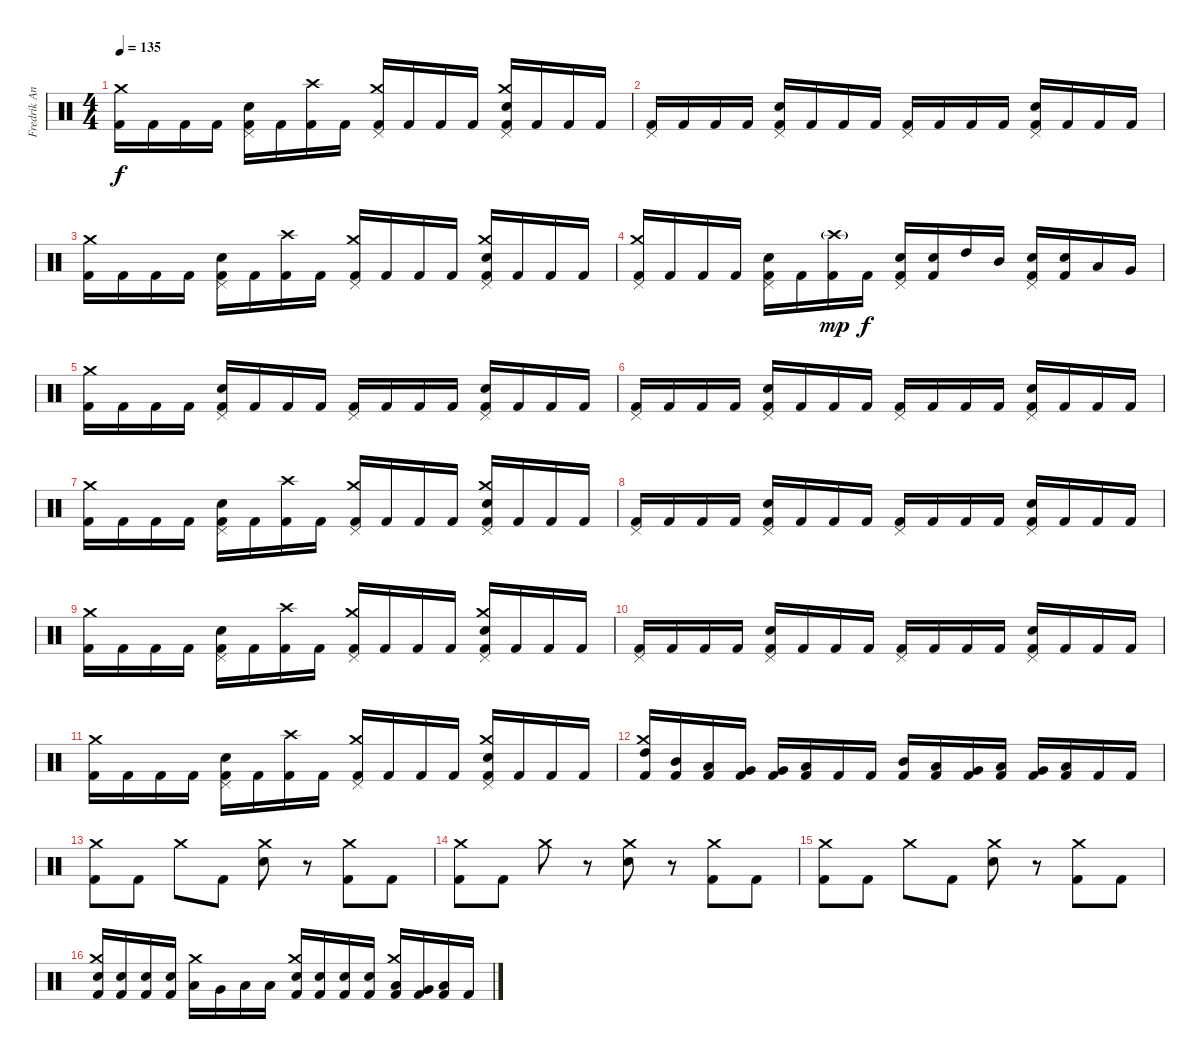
\track ("Fredrik Andersson" "Fredrik An") {instrument percussion}
\staff {score}
\articulation defaults
\ts (4 4)
\tempo 135
\clef neutral
\ks c
("Kick (hit) 2" "Crash medium (hit)").16{dy f} "Kick (hit) 2".16 "Kick (hit) 2".16 "Kick (hit) 2".16 ("Kick (hit) 2" "Snare (hit) 2" "Pedal Hi-Hat (hit)").16 "Kick (hit) 2".16 ("Kick (hit) 2" "Crash high (hit)").16 "Kick (hit) 2".16 ("Kick (hit) 2" "Pedal Hi-Hat (hit)" "Crash medium (hit)").16 "Kick (hit) 2".16 "Kick (hit) 2".16 "Kick (hit) 2".16 ("Kick (hit) 2" "Snare (hit) 2" "Pedal Hi-Hat (hit)" "Crash medium (hit)").16 "Kick (hit) 2".16 "Kick (hit) 2".16 "Kick (hit) 2".16 |
("Kick (hit) 2" "Pedal Hi-Hat (hit)").16 "Kick (hit) 2".16 "Kick (hit) 2".16 "Kick (hit) 2".16 ("Kick (hit) 2" "Snare (hit) 2" "Pedal Hi-Hat (hit)").16 "Kick (hit) 2".16 "Kick (hit) 2".16 "Kick (hit) 2".16 ("Kick (hit) 2" "Pedal Hi-Hat (hit)").16 "Kick (hit) 2".16 "Kick (hit) 2".16 "Kick (hit) 2".16 ("Kick (hit) 2" "Snare (hit) 2" "Pedal Hi-Hat (hit)").16 "Kick (hit) 2".16 "Kick (hit) 2".16 "Kick (hit) 2".16 |
("Kick (hit) 2" "Crash medium (hit)").16 "Kick (hit) 2".16 "Kick (hit) 2".16 "Kick (hit) 2".16 ("Kick (hit) 2" "Snare (hit) 2" "Pedal Hi-Hat (hit)").16 "Kick (hit) 2".16 ("Kick (hit) 2" "Crash high (hit)").16 "Kick (hit) 2".16 ("Kick (hit) 2" "Pedal Hi-Hat (hit)" "Crash medium (hit)").16 "Kick (hit) 2".16 "Kick (hit) 2".16 "Kick (hit) 2".16 ("Kick (hit) 2" "Snare (hit) 2" "Pedal Hi-Hat (hit)" "Crash medium (hit)").16 "Kick (hit) 2".16 "Kick (hit) 2".16 "Kick (hit) 2".16 |
("Kick (hit) 2" "Pedal Hi-Hat (hit)" "Crash medium (hit)").16 "Kick (hit) 2".16 "Kick (hit) 2".16 "Kick (hit) 2".16 ("Kick (hit) 2" "Snare (hit) 2" "Pedal Hi-Hat (hit)").16 "Kick (hit) 2".16 ("Kick (hit) 2" "Crash high (hit)"{g}).16{dy mp} "Kick (hit) 2".16{dy f} ("Kick (hit) 2" "Snare (hit) 2" "Pedal Hi-Hat (hit)").16 ("Kick (hit) 2" "Snare (hit) 2").16 "High Tom (hit)".16 "Mid Tom (hit)".16 ("Kick (hit) 2" "Snare (hit) 2" "Pedal Hi-Hat (hit)").16 ("Kick (hit) 2" "Snare (hit) 2").16 "Low Tom (hit)".16 "Very Low Tom (hit)".16 |
("Kick (hit) 2" "Crash medium (hit)").16 "Kick (hit) 2".16 "Kick (hit) 2".16 "Kick (hit) 2".16 ("Kick (hit) 2" "Snare (hit) 2" "Pedal Hi-Hat (hit)").16 "Kick (hit) 2".16 "Kick (hit) 2".16 "Kick (hit) 2".16 ("Kick (hit) 2" "Pedal Hi-Hat (hit)").16 "Kick (hit) 2".16 "Kick (hit) 2".16 "Kick (hit) 2".16 ("Kick (hit) 2" "Snare (hit) 2" "Pedal Hi-Hat (hit)").16 "Kick (hit) 2".16 "Kick (hit) 2".16 "Kick (hit) 2".16 |
("Kick (hit) 2" "Pedal Hi-Hat (hit)").16 "Kick (hit) 2".16 "Kick (hit) 2".16 "Kick (hit) 2".16 ("Kick (hit) 2" "Snare (hit) 2" "Pedal Hi-Hat (hit)").16 "Kick (hit) 2".16 "Kick (hit) 2".16 "Kick (hit) 2".16 ("Kick (hit) 2" "Pedal Hi-Hat (hit)").16 "Kick (hit) 2".16 "Kick (hit) 2".16 "Kick (hit) 2".16 ("Kick (hit) 2" "Snare (hit) 2" "Pedal Hi-Hat (hit)").16 "Kick (hit) 2".16 "Kick (hit) 2".16 "Kick (hit) 2".16 |
("Kick (hit) 2" "Crash medium (hit)").16 "Kick (hit) 2".16 "Kick (hit) 2".16 "Kick (hit) 2".16 ("Kick (hit) 2" "Snare (hit) 2" "Pedal Hi-Hat (hit)").16 "Kick (hit) 2".16 ("Kick (hit) 2" "Crash high (hit)").16 "Kick (hit) 2".16 ("Kick (hit) 2" "Pedal Hi-Hat (hit)" "Crash medium (hit)").16 "Kick (hit) 2".16 "Kick (hit) 2".16 "Kick (hit) 2".16 ("Kick (hit) 2" "Snare (hit) 2" "Pedal Hi-Hat (hit)" "Crash medium (hit)").16 "Kick (hit) 2".16 "Kick (hit) 2".16 "Kick (hit) 2".16 |
("Kick (hit) 2" "Pedal Hi-Hat (hit)").16 "Kick (hit) 2".16 "Kick (hit) 2".16 "Kick (hit) 2".16 ("Kick (hit) 2" "Snare (hit) 2" "Pedal Hi-Hat (hit)").16 "Kick (hit) 2".16 "Kick (hit) 2".16 "Kick (hit) 2".16 ("Kick (hit) 2" "Pedal Hi-Hat (hit)").16 "Kick (hit) 2".16 "Kick (hit) 2".16 "Kick (hit) 2".16 ("Kick (hit) 2" "Snare (hit) 2" "Pedal Hi-Hat (hit)").16 "Kick (hit) 2".16 "Kick (hit) 2".16 "Kick (hit) 2".16 |
("Kick (hit) 2" "Crash medium (hit)").16 "Kick (hit) 2".16 "Kick (hit) 2".16 "Kick (hit) 2".16 ("Kick (hit) 2" "Snare (hit) 2" "Pedal Hi-Hat (hit)").16 "Kick (hit) 2".16 ("Kick (hit) 2" "Crash high (hit)").16 "Kick (hit) 2".16 ("Kick (hit) 2" "Pedal Hi-Hat (hit)" "Crash medium (hit)").16 "Kick (hit) 2".16 "Kick (hit) 2".16 "Kick (hit) 2".16 ("Kick (hit) 2" "Snare (hit) 2" "Pedal Hi-Hat (hit)" "Crash medium (hit)").16 "Kick (hit) 2".16 "Kick (hit) 2".16 "Kick (hit) 2".16 |
("Kick (hit) 2" "Pedal Hi-Hat (hit)").16 "Kick (hit) 2".16 "Kick (hit) 2".16 "Kick (hit) 2".16 ("Kick (hit) 2" "Snare (hit) 2" "Pedal Hi-Hat (hit)").16 "Kick (hit) 2".16 "Kick (hit) 2".16 "Kick (hit) 2".16 ("Kick (hit) 2" "Pedal Hi-Hat (hit)").16 "Kick (hit) 2".16 "Kick (hit) 2".16 "Kick (hit) 2".16 ("Kick (hit) 2" "Snare (hit) 2" "Pedal Hi-Hat (hit)").16 "Kick (hit) 2".16 "Kick (hit) 2".16 "Kick (hit) 2".16 |
("Kick (hit) 2" "Crash medium (hit)").16 "Kick (hit) 2".16 "Kick (hit) 2".16 "Kick (hit) 2".16 ("Kick (hit) 2" "Snare (hit) 2" "Pedal Hi-Hat (hit)").16 "Kick (hit) 2".16 ("Kick (hit) 2" "Crash high (hit)").16 "Kick (hit) 2".16 ("Kick (hit) 2" "Pedal Hi-Hat (hit)" "Crash medium (hit)").16 "Kick (hit) 2".16 "Kick (hit) 2".16 "Kick (hit) 2".16 ("Kick (hit) 2" "Snare (hit) 2" "Pedal Hi-Hat (hit)" "Crash medium (hit)").16 "Kick (hit) 2".16 "Kick (hit) 2".16 "Kick (hit) 2".16 |
("Kick (hit) 2" "High Tom (hit)" "Crash medium (hit)").16 ("Kick (hit) 2" "Mid Tom (hit)").16 ("Kick (hit) 2" "Low Tom (hit)").16 ("Kick (hit) 2" "Very Low Tom (hit)").16 ("Kick (hit) 2" "Very Low Tom (hit)").16 ("Kick (hit) 2" "Low Floor Tom (hit)").16 "Kick (hit) 2".16 "Kick (hit) 2".16 ("Kick (hit) 2" "Mid Tom (hit)").16 ("Kick (hit) 2" "Low Tom (hit)").16 ("Kick (hit) 2" "Very Low Tom (hit)").16 ("Kick (hit) 2" "Low Floor Tom (hit)").16 ("Kick (hit) 2" "Very Low Tom (hit)").16 ("Kick (hit) 2" "Low Floor Tom (hit)").16 "Kick (hit) 2".16 "Kick (hit) 2".16 |
("Kick (hit) 2" "Crash medium (hit)").8 "Kick (hit) 2".8 "Crash medium (hit)".8 "Kick (hit) 2".8 ("Snare (hit) 2" "Crash medium (hit)").8 r.8 ("Kick (hit) 2" "Crash medium (hit)").8 "Kick (hit) 2".8 |
("Kick (hit) 2" "Crash medium (hit)").8 "Kick (hit) 2".8 "Crash medium (hit)".8 r.8 ("Snare (hit) 2" "Crash medium (hit)").8 r.8 ("Kick (hit) 2" "Crash medium (hit)").8 "Kick (hit) 2".8 |
("Kick (hit) 2" "Crash medium (hit)").8 "Kick (hit) 2".8 "Crash medium (hit)".8 "Kick (hit) 2".8 ("Snare (hit) 2" "Crash medium (hit)").8 r.8 ("Kick (hit) 2" "Crash medium (hit)").8 "Kick (hit) 2".8 |
("Kick (hit) 2" "Snare (hit) 2" "Crash medium (hit)").16 ("Kick (hit) 2" "Snare (hit) 2").16 ("Kick (hit) 2" "Snare (hit) 2").16 ("Kick (hit) 2" "Snare (hit) 2").16 ("Low Tom (hit)" "Crash medium (hit)").16 "Very Low Tom (hit)".16 "Low Floor Tom (hit)".16 "Low Floor Tom (hit)".16 ("Kick (hit) 2" "Snare (hit) 2" "Crash medium (hit)").16 ("Kick (hit) 2" "Snare (hit) 2").16 ("Kick (hit) 2" "Snare (hit) 2").16 ("Kick (hit) 2" "Snare (hit) 2").16 ("Kick (hit) 2" "Low Tom (hit)" "Crash medium (hit)").16 ("Kick (hit) 2" "Very Low Tom (hit)").16 ("Kick (hit) 2" "Low Floor Tom (hit)").16 "Kick (hit) 2".16
